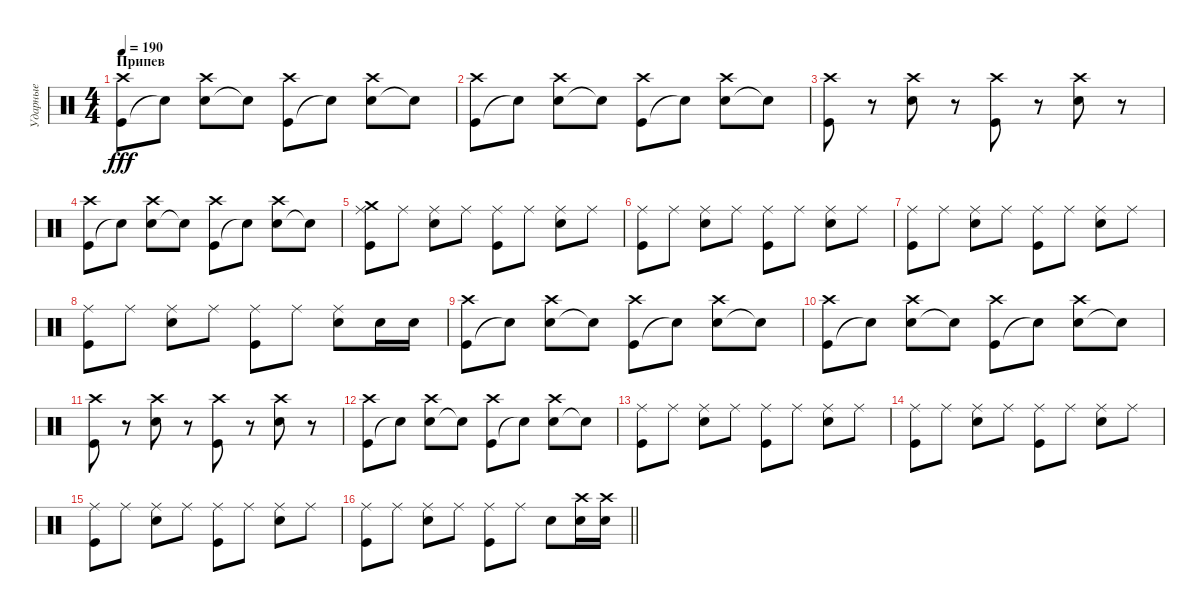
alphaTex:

\track ("Ударные" "Ударные") {instrument percussion}
\staff {score}
\articulation defaults
\ts (4 4)
\section ("" "Припев")
\tempo 190
\clef neutral
\ks c
("Kick (hit)" "Crash high (hit)").8{dy fff} "Snare (hit)"{t}.8 ("Electric Snare (hit)" "Crash high (hit)").8 "Snare (hit)"{t}.8 ("Kick (hit)" "Crash high (hit)").8 "Snare (hit)"{t}.8 ("Electric Snare (hit)" "Crash high (hit)").8 "Snare (hit)"{t}.8 |
("Kick (hit)" "Crash high (hit)").8 "Snare (hit)"{t}.8 ("Electric Snare (hit)" "Crash high (hit)").8 "Snare (hit)"{t}.8 ("Kick (hit)" "Crash high (hit)").8 "Snare (hit)"{t}.8 ("Electric Snare (hit)" "Crash high (hit)").8 "Snare (hit)"{t}.8 |
("Kick (hit)" "Crash high (hit)").8 r.8 ("Electric Snare (hit)" "Crash high (hit)").8 r.8 ("Kick (hit)" "Crash high (hit)").8 r.8 ("Electric Snare (hit)" "Crash high (hit)").8 r.8 |
("Kick (hit)" "Crash high (hit)").8 "Snare (hit)"{t}.8 ("Electric Snare (hit)" "Crash high (hit)").8 "Snare (hit)"{t}.8 ("Kick (hit)" "Crash high (hit)").8 "Snare (hit)"{t}.8 ("Electric Snare (hit)" "Crash high (hit)").8 "Snare (hit)"{t}.8 |
("Kick (hit)" "Ride (middle)" "Crash medium (hit)").8 "Ride (middle)".8 ("Electric Snare (hit)" "Ride (middle)").8 "Ride (middle)".8 ("Kick (hit)" "Ride (middle)").8 "Ride (middle)".8 ("Electric Snare (hit)" "Ride (middle)").8 "Ride (middle)".8 |
("Kick (hit)" "Ride (middle)").8 "Ride (middle)".8 ("Electric Snare (hit)" "Ride (middle)").8 "Ride (middle)".8 ("Kick (hit)" "Ride (middle)").8 "Ride (middle)".8 ("Electric Snare (hit)" "Ride (middle)").8 "Ride (middle)".8 |
("Kick (hit)" "Ride (middle)").8 "Ride (middle)".8 ("Electric Snare (hit)" "Ride (middle)").8 "Ride (middle)".8 ("Kick (hit)" "Ride (middle)").8 "Ride (middle)".8 ("Electric Snare (hit)" "Ride (middle)").8 "Ride (middle)".8 |
("Kick (hit)" "Ride (middle)").8 "Ride (middle)".8 ("Electric Snare (hit)" "Ride (middle)").8 "Ride (middle)".8 ("Kick (hit)" "Ride (middle)").8 "Ride (middle)".8 ("Electric Snare (hit)" "Ride (middle)").8 "Electric Snare (hit)".16 "Electric Snare (hit)".16 |
("Kick (hit)" "Crash high (hit)").8 "Snare (hit)"{t}.8 ("Electric Snare (hit)" "Crash high (hit)").8 "Snare (hit)"{t}.8 ("Kick (hit)" "Crash high (hit)").8 "Snare (hit)"{t}.8 ("Electric Snare (hit)" "Crash high (hit)").8 "Snare (hit)"{t}.8 |
("Kick (hit)" "Crash high (hit)").8 "Snare (hit)"{t}.8 ("Electric Snare (hit)" "Crash high (hit)").8 "Snare (hit)"{t}.8 ("Kick (hit)" "Crash high (hit)").8 "Snare (hit)"{t}.8 ("Electric Snare (hit)" "Crash high (hit)").8 "Snare (hit)"{t}.8 |
("Kick (hit)" "Crash high (hit)").8 r.8 ("Electric Snare (hit)" "Crash high (hit)").8 r.8 ("Kick (hit)" "Crash high (hit)").8 r.8 ("Electric Snare (hit)" "Crash high (hit)").8 r.8 |
("Kick (hit)" "Crash high (hit)").8 "Snare (hit)"{t}.8 ("Electric Snare (hit)" "Crash high (hit)").8 "Snare (hit)"{t}.8 ("Kick (hit)" "Crash high (hit)").8 "Snare (hit)"{t}.8 ("Electric Snare (hit)" "Crash high (hit)").8 "Snare (hit)"{t}.8 |
("Kick (hit)" "Ride (middle)").8 "Ride (middle)".8 ("Electric Snare (hit)" "Ride (middle)").8 "Ride (middle)".8 ("Kick (hit)" "Ride (middle)").8 "Ride (middle)".8 ("Electric Snare (hit)" "Ride (middle)").8 "Ride (middle)".8 |
("Kick (hit)" "Ride (middle)").8 "Ride (middle)".8 ("Electric Snare (hit)" "Ride (middle)").8 "Ride (middle)".8 ("Kick (hit)" "Ride (middle)").8 "Ride (middle)".8 ("Electric Snare (hit)" "Ride (middle)").8 "Ride (middle)".8 |
("Kick (hit)" "Ride (middle)").8 "Ride (middle)".8 ("Electric Snare (hit)" "Ride (middle)").8 "Ride (middle)".8 ("Kick (hit)" "Ride (middle)").8 "Ride (middle)".8 ("Electric Snare (hit)" "Ride (middle)").8 "Ride (middle)".8 |
\barLineRight lightlight
("Kick (hit)" "Ride (middle)").8 "Ride (middle)".8 ("Electric Snare (hit)" "Ride (middle)").8 "Ride (middle)".8 ("Kick (hit)" "Ride (middle)").8 "Ride (middle)".8 "Electric Snare (hit)".8 ("Electric Snare (hit)" "Crash high (hit)").16 ("Electric Snare (hit)" "Crash high (hit)").16
